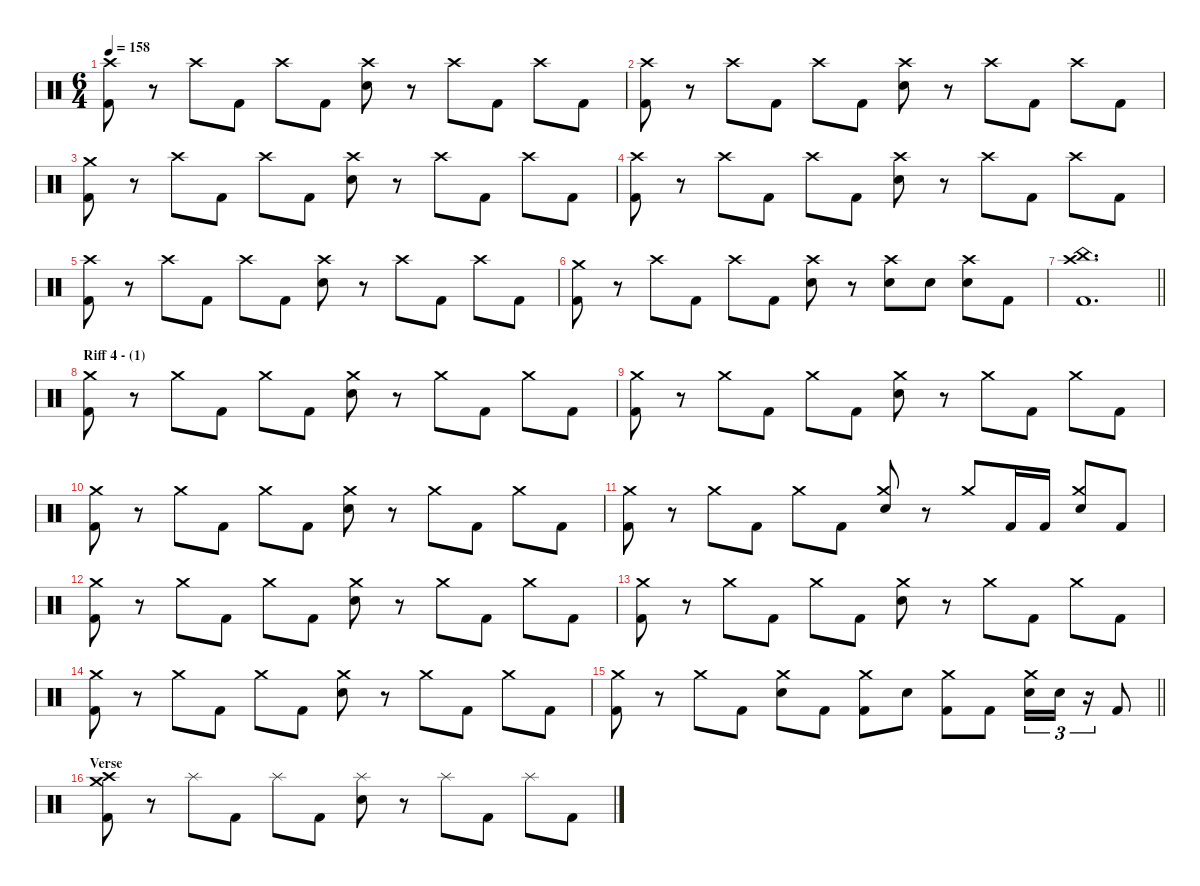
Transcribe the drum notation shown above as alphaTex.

\defaultSystemsLayout 4
\hideDynamics
\bracketExtendMode nobrackets
\singleTrackTrackNamePolicy hidden
\multiTrackTrackNamePolicy hidden
\firstSystemTrackNameMode fullname
\firstSystemTrackNameOrientation horizontal
\otherSystemsTrackNameOrientation horizontal
\track ("Drums" "drm.") {defaultSystemsLayout 4 instrument percussion}
\staff {score}
\articulation defaults
\ts (6 4)
\tempo 158
\clef neutral
\ks c
("Crash high (hit)" "Kick (hit) 2").8{dy f beam Down} r.8{beam Down} "Crash high (hit)".8{beam Down} "Kick (hit) 2".8{beam Down} "Crash high (hit)".8{beam Down} "Kick (hit) 2".8{beam Down} ("Crash high (hit)" "Snare (hit) 2").8{beam Down} r.8{beam Down} "Crash high (hit)".8{beam Down} "Kick (hit) 2".8{beam Down} "Crash high (hit)".8{beam Down} "Kick (hit) 2".8{beam Down} |
("Crash high (hit)" "Kick (hit) 2").8{beam Down} r.8{beam Down} "Crash high (hit)".8{beam Down} "Kick (hit) 2".8{beam Down} "Crash high (hit)".8{beam Down} "Kick (hit) 2".8{beam Down} ("Crash high (hit)" "Snare (hit) 2").8{beam Down} r.8{beam Down} "Crash high (hit)".8{beam Down} "Kick (hit) 2".8{beam Down} "Crash high (hit)".8{beam Down} "Kick (hit) 2".8{beam Down} |
("Crash medium (hit)" "Kick (hit) 2").8{beam Down} r.8{beam Down} "Crash high (hit)".8{beam Down} "Kick (hit) 2".8{beam Down} "Crash high (hit)".8{beam Down} "Kick (hit) 2".8{beam Down} ("Crash high (hit)" "Snare (hit) 2").8{beam Down} r.8{beam Down} "Crash high (hit)".8{beam Down} "Kick (hit) 2".8{beam Down} "Crash high (hit)".8{beam Down} "Kick (hit) 2".8{beam Down} |
("Crash high (hit)" "Kick (hit) 2").8{beam Down} r.8{beam Down} "Crash high (hit)".8{beam Down} "Kick (hit) 2".8{beam Down} "Crash high (hit)".8{beam Down} "Kick (hit) 2".8{beam Down} ("Crash high (hit)" "Snare (hit) 2").8{beam Down} r.8{beam Down} "Crash high (hit)".8{beam Down} "Kick (hit) 2".8{beam Down} "Crash high (hit)".8{beam Down} "Kick (hit) 2".8{beam Down} |
("Crash high (hit)" "Kick (hit) 2").8{beam Down} r.8{beam Down} "Crash high (hit)".8{beam Down} "Kick (hit) 2".8{beam Down} "Crash high (hit)".8{beam Down} "Kick (hit) 2".8{beam Down} ("Crash high (hit)" "Snare (hit) 2").8{beam Down} r.8{beam Down} "Crash high (hit)".8{beam Down} "Kick (hit) 2".8{beam Down} "Crash high (hit)".8{beam Down} "Kick (hit) 2".8{beam Down} |
("Crash medium (hit)" "Kick (hit) 2").8{beam Down} r.8{beam Down} "Crash high (hit)".8{beam Down} "Kick (hit) 2".8{beam Down} "Crash high (hit)".8{beam Down} "Kick (hit) 2".8{beam Down} ("Crash high (hit)" "Snare (hit) 2").8{beam Down} r.8{beam Down} ("Crash high (hit)" "Snare (hit) 2").8{beam Down} "Snare (hit) 2".8{beam Down} ("Crash high (hit)" "Snare (hit) 2").8{beam Down} "Kick (hit) 2".8{beam Down} |
\barLineRight lightlight
("China (hit)" "Crash high (hit)" "Kick (hit) 2").1{d beam Down} |
\section ("" "Riff 4 - (1)")
("Crash medium (hit)" "Kick (hit) 2").8{beam Down} r.8{beam Down} "Crash medium (hit)".8{beam Down} "Kick (hit) 2".8{beam Down} "Crash medium (hit)".8{beam Down} "Kick (hit) 2".8{beam Down} ("Crash medium (hit)" "Snare (hit) 2").8{beam Down} r.8{beam Down} "Crash medium (hit)".8{beam Down} "Kick (hit) 2".8{beam Down} "Crash medium (hit)".8{beam Down} "Kick (hit) 2".8{beam Down} |
("Crash medium (hit)" "Kick (hit) 2").8{beam Down} r.8{beam Down} "Crash medium (hit)".8{beam Down} "Kick (hit) 2".8{beam Down} "Crash medium (hit)".8{beam Down} "Kick (hit) 2".8{beam Down} ("Crash medium (hit)" "Snare (hit) 2").8{beam Down} r.8{beam Down} "Crash medium (hit)".8{beam Down} "Kick (hit) 2".8{beam Down} "Crash medium (hit)".8{beam Down} "Kick (hit) 2".8{beam Down} |
("Crash medium (hit)" "Kick (hit) 2").8{beam Down} r.8{beam Down} "Crash medium (hit)".8{beam Down} "Kick (hit) 2".8{beam Down} "Crash medium (hit)".8{beam Down} "Kick (hit) 2".8{beam Down} ("Crash medium (hit)" "Snare (hit) 2").8{beam Down} r.8{beam Down} "Crash medium (hit)".8{beam Down} "Kick (hit) 2".8{beam Down} "Crash medium (hit)".8{beam Down} "Kick (hit) 2".8{beam Down} |
("Crash medium (hit)" "Kick (hit) 2").8{beam Down} r.8{beam Down} "Crash medium (hit)".8{beam Down} "Kick (hit) 2".8{beam Down} "Crash medium (hit)".8{beam Down} "Kick (hit) 2".8{beam Down} ("Crash medium (hit)" "Snare (hit) 2").8{beam Up} r.8{beam Up} "Crash medium (hit)".8{beam Up} "Kick (hit) 2".16{beam Up} "Kick (hit) 2".16{beam Up} ("Crash medium (hit)" "Snare (hit) 2").8{beam Up} "Kick (hit) 2".8{beam Up} |
("Crash medium (hit)" "Kick (hit) 2").8{beam Down} r.8{beam Down} "Crash medium (hit)".8{beam Down} "Kick (hit) 2".8{beam Down} "Crash medium (hit)".8{beam Down} "Kick (hit) 2".8{beam Down} ("Crash medium (hit)" "Snare (hit) 2").8{beam Down} r.8{beam Down} "Crash medium (hit)".8{beam Down} "Kick (hit) 2".8{beam Down} "Crash medium (hit)".8{beam Down} "Kick (hit) 2".8{beam Down} |
("Crash medium (hit)" "Kick (hit) 2").8{beam Down} r.8{beam Down} "Crash medium (hit)".8{beam Down} "Kick (hit) 2".8{beam Down} "Crash medium (hit)".8{beam Down} "Kick (hit) 2".8{beam Down} ("Crash medium (hit)" "Snare (hit) 2").8{beam Down} r.8{beam Down} "Crash medium (hit)".8{beam Down} "Kick (hit) 2".8{beam Down} "Crash medium (hit)".8{beam Down} "Kick (hit) 2".8{beam Down} |
("Crash medium (hit)" "Kick (hit) 2").8{beam Down} r.8{beam Down} "Crash medium (hit)".8{beam Down} "Kick (hit) 2".8{beam Down} "Crash medium (hit)".8{beam Down} "Kick (hit) 2".8{beam Down} ("Crash medium (hit)" "Snare (hit) 2").8{beam Down} r.8{beam Down} "Crash medium (hit)".8{beam Down} "Kick (hit) 2".8{beam Down} "Crash medium (hit)".8{beam Down} "Kick (hit) 2".8{beam Down} |
\barLineRight lightlight
("Crash medium (hit)" "Kick (hit) 2").8{beam Down} r.8{beam Down} "Crash medium (hit)".8{beam Down} "Kick (hit) 2".8{beam Down} ("Crash medium (hit)" "Snare (hit) 2").8{beam Down} "Kick (hit) 2".8{beam Down} ("Crash medium (hit)" "Kick (hit) 2").8{beam Down} "Snare (hit) 2".8{beam Down} ("Crash medium (hit)" "Kick (hit) 2").8{beam Down} "Kick (hit) 2".8{beam Down} ("Crash medium (hit)" "Snare (hit) 2").16{tu (3 2) beam Down} "Snare (hit) 2".16{tu (3 2) beam Down} r.16{tu (3 2) beam Down} "Kick (hit) 2".8{beam Up} |
\section ("" "Verse")
("Crash high (hit)" "Crash medium (hit)" "Kick (hit) 2").8{beam Down} r.8{beam Down} "Splash (hit)".8{beam Down} "Kick (hit) 2".8{beam Down} "Splash (hit)".8{beam Down} "Kick (hit) 2".8{beam Down} ("Splash (hit)" "Snare (hit) 2").8{beam Down} r.8{beam Down} "Splash (hit)".8{beam Down} "Kick (hit) 2".8{beam Down} "Splash (hit)".8{beam Down} "Kick (hit) 2".8{beam Down}
